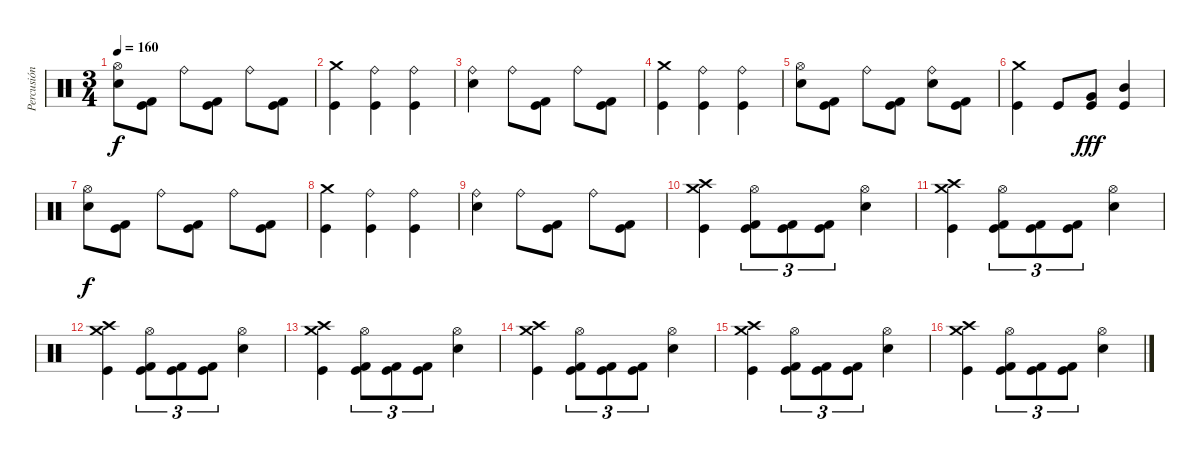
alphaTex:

\track ("Percusión" "Percusión") {instrument percussion}
\staff {score}
\articulation defaults
\ts (3 4)
\tempo 160
\clef neutral
\ks c
("Hi-Hat (open)" "Electric Snare (hit)").8{dy f} ("Kick (hit) 2" "Kick (hit)").8 "Ride (bell)".8 ("Kick (hit) 2" "Kick (hit)").8 "Ride (bell)".8 ("Kick (hit) 2" "Kick (hit)").8 |
("Crash medium (hit)" "Kick (hit)").4 ("Ride (bell)" "Kick (hit)").4 ("Ride (bell)" "Kick (hit)").4 |
("Ride (bell)" "Electric Snare (hit)").4 "Ride (bell)".8 ("Kick (hit) 2" "Kick (hit)").8 "Ride (bell)".8 ("Kick (hit) 2" "Kick (hit)").8 |
("Crash medium (hit)" "Kick (hit)").4 ("Ride (bell)" "Kick (hit)").4 ("Ride (bell)" "Kick (hit)").4 |
("Hi-Hat (open)" "Electric Snare (hit)").8 ("Kick (hit) 2" "Kick (hit)").8 "Ride (bell)".8 ("Kick (hit) 2" "Kick (hit)").8 ("Ride (bell)" "Electric Snare (hit)").8 ("Kick (hit) 2" "Kick (hit)").8 |
("Crash medium (hit)" "Kick (hit)").4 "Kick (hit)".8 ("Very Low Tom (hit)" "Kick (hit)").8{dy fff} ("Mid Tom (hit)" "Kick (hit)").4 |
("Hi-Hat (open)" "Electric Snare (hit)").8{dy f} ("Kick (hit) 2" "Kick (hit)").8 "Ride (bell)".8 ("Kick (hit) 2" "Kick (hit)").8 "Ride (bell)".8 ("Kick (hit) 2" "Kick (hit)").8 |
("Crash medium (hit)" "Kick (hit)").4 ("Ride (bell)" "Kick (hit)").4 ("Ride (bell)" "Kick (hit)").4 |
("Ride (bell)" "Electric Snare (hit)").4 "Ride (bell)".8 ("Kick (hit) 2" "Kick (hit)").8 "Ride (bell)".8 ("Kick (hit) 2" "Kick (hit)").8 |
("Crash medium (hit)" "Crash high (hit)" "Kick (hit)").4 ("Hi-Hat (open)" "Kick (hit) 2" "Kick (hit)").8{tu (3 2)} ("Kick (hit) 2" "Kick (hit)").8{tu (3 2)} ("Kick (hit) 2" "Kick (hit)").8{tu (3 2)} ("Hi-Hat (open)" "Electric Snare (hit)").4 |
("Crash medium (hit)" "Crash high (hit)" "Kick (hit)").4 ("Hi-Hat (open)" "Kick (hit) 2" "Kick (hit)").8{tu (3 2)} ("Kick (hit) 2" "Kick (hit)").8{tu (3 2)} ("Kick (hit) 2" "Kick (hit)").8{tu (3 2)} ("Hi-Hat (open)" "Electric Snare (hit)").4 |
("Crash medium (hit)" "Crash high (hit)" "Kick (hit)").4 ("Hi-Hat (open)" "Kick (hit) 2" "Kick (hit)").8{tu (3 2)} ("Kick (hit) 2" "Kick (hit)").8{tu (3 2)} ("Kick (hit) 2" "Kick (hit)").8{tu (3 2)} ("Hi-Hat (open)" "Electric Snare (hit)").4 |
("Crash medium (hit)" "Crash high (hit)" "Kick (hit)").4 ("Hi-Hat (open)" "Kick (hit) 2" "Kick (hit)").8{tu (3 2)} ("Kick (hit) 2" "Kick (hit)").8{tu (3 2)} ("Kick (hit) 2" "Kick (hit)").8{tu (3 2)} ("Hi-Hat (open)" "Electric Snare (hit)").4 |
("Crash medium (hit)" "Crash high (hit)" "Kick (hit)").4 ("Hi-Hat (open)" "Kick (hit) 2" "Kick (hit)").8{tu (3 2)} ("Kick (hit) 2" "Kick (hit)").8{tu (3 2)} ("Kick (hit) 2" "Kick (hit)").8{tu (3 2)} ("Hi-Hat (open)" "Electric Snare (hit)").4 |
("Crash medium (hit)" "Crash high (hit)" "Kick (hit)").4 ("Hi-Hat (open)" "Kick (hit) 2" "Kick (hit)").8{tu (3 2)} ("Kick (hit) 2" "Kick (hit)").8{tu (3 2)} ("Kick (hit) 2" "Kick (hit)").8{tu (3 2)} ("Hi-Hat (open)" "Electric Snare (hit)").4 |
("Crash medium (hit)" "Crash high (hit)" "Kick (hit)").4 ("Hi-Hat (open)" "Kick (hit) 2" "Kick (hit)").8{tu (3 2)} ("Kick (hit) 2" "Kick (hit)").8{tu (3 2)} ("Kick (hit) 2" "Kick (hit)").8{tu (3 2)} ("Hi-Hat (open)" "Electric Snare (hit)").4
